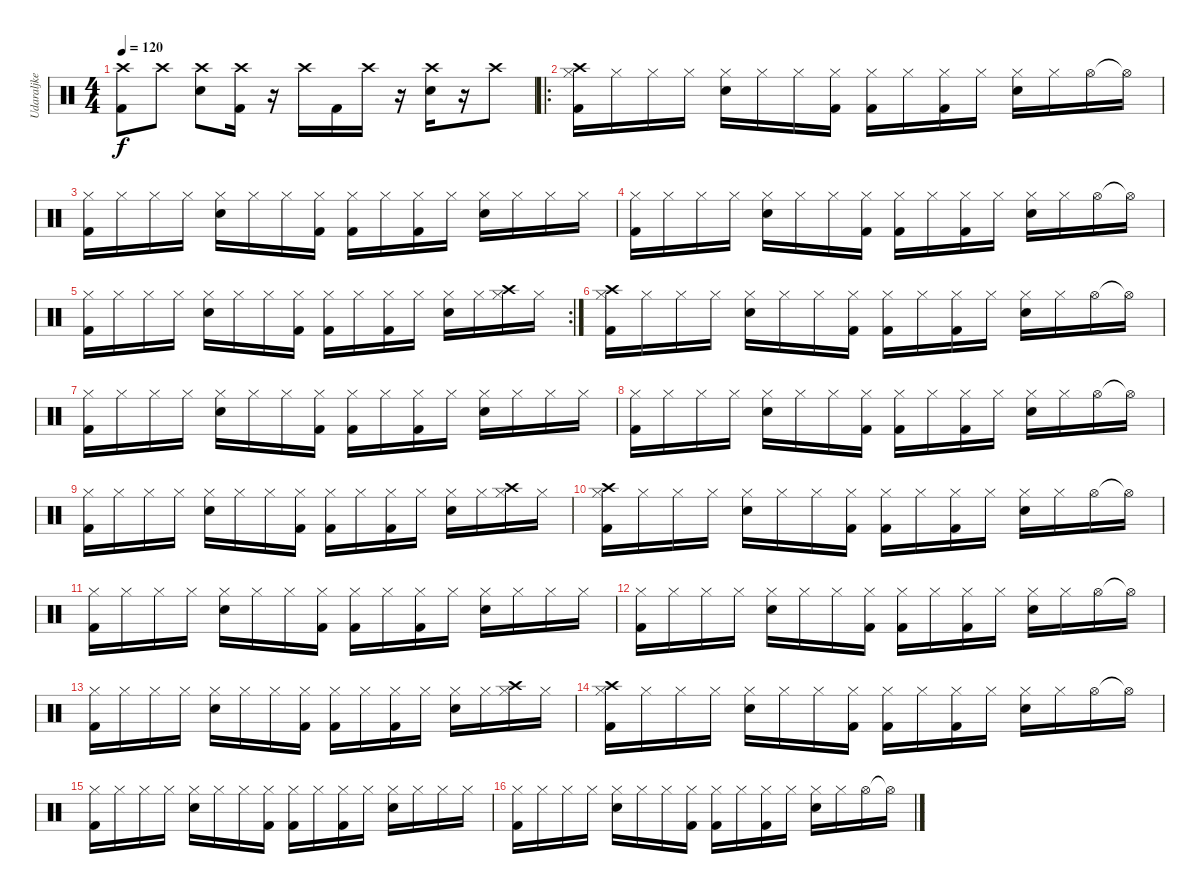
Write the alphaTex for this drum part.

\track ("Udaraljke" "Udaraljke") {instrument percussion}
\staff {score}
\articulation defaults
\ts (4 4)
\tempo 120
\clef neutral
\ks c
("Crash high (hit)" "Kick (hit) 2").8{dy f} "Crash high (hit)".8 ("Crash high (hit)" "Snare (hit) 2").8 ("Crash high (hit)" "Kick (hit) 2").16 r.16 "Crash high (hit)".16 "Kick (hit) 2".16 "Crash high (hit)".16 r.16 ("Crash high (hit)" "Snare (hit) 2").16 r.16 "Crash high (hit)".8 |
\ro
("Crash high (hit)" "Hi-Hat (closed)" "Kick (hit) 2").16 "Hi-Hat (closed)".16 "Hi-Hat (closed)".16 "Hi-Hat (closed)".16 ("Hi-Hat (closed)" "Snare (hit) 2").16 "Hi-Hat (closed)".16 "Hi-Hat (closed)".16 ("Hi-Hat (closed)" "Kick (hit) 2").16 ("Hi-Hat (closed)" "Kick (hit) 2").16 "Hi-Hat (closed)".16 ("Hi-Hat (closed)" "Kick (hit) 2").16 "Hi-Hat (closed)".16 ("Hi-Hat (closed)" "Snare (hit) 2").16 "Hi-Hat (closed)".16 "Hi-Hat (open)".16 "Hi-Hat (open)"{t}.16 |
("Hi-Hat (closed)" "Kick (hit) 2").16 "Hi-Hat (closed)".16 "Hi-Hat (closed)".16 "Hi-Hat (closed)".16 ("Hi-Hat (closed)" "Snare (hit) 2").16 "Hi-Hat (closed)".16 "Hi-Hat (closed)".16 ("Hi-Hat (closed)" "Kick (hit) 2").16 ("Hi-Hat (closed)" "Kick (hit) 2").16 "Hi-Hat (closed)".16 ("Hi-Hat (closed)" "Kick (hit) 2").16 "Hi-Hat (closed)".16 ("Hi-Hat (closed)" "Snare (hit) 2").16 "Hi-Hat (closed)".16 "Hi-Hat (closed)".16 "Hi-Hat (closed)".16 |
("Hi-Hat (closed)" "Kick (hit) 2").16 "Hi-Hat (closed)".16 "Hi-Hat (closed)".16 "Hi-Hat (closed)".16 ("Hi-Hat (closed)" "Snare (hit) 2").16 "Hi-Hat (closed)".16 "Hi-Hat (closed)".16 ("Hi-Hat (closed)" "Kick (hit) 2").16 ("Hi-Hat (closed)" "Kick (hit) 2").16 "Hi-Hat (closed)".16 ("Hi-Hat (closed)" "Kick (hit) 2").16 "Hi-Hat (closed)".16 ("Hi-Hat (closed)" "Snare (hit) 2").16 "Hi-Hat (closed)".16 "Hi-Hat (open)".16 "Hi-Hat (open)"{t}.16 |
\rc 2
("Hi-Hat (closed)" "Kick (hit) 2").16 "Hi-Hat (closed)".16 "Hi-Hat (closed)".16 "Hi-Hat (closed)".16 ("Hi-Hat (closed)" "Snare (hit) 2").16 "Hi-Hat (closed)".16 "Hi-Hat (closed)".16 ("Hi-Hat (closed)" "Kick (hit) 2").16 ("Hi-Hat (closed)" "Kick (hit) 2").16 "Hi-Hat (closed)".16 ("Hi-Hat (closed)" "Kick (hit) 2").16 "Hi-Hat (closed)".16 ("Hi-Hat (closed)" "Snare (hit) 2").16 "Hi-Hat (closed)".16 ("Crash high (hit)" "Hi-Hat (closed)").16 "Hi-Hat (closed)".16 |
("Crash high (hit)" "Hi-Hat (closed)" "Kick (hit) 2").16 "Hi-Hat (closed)".16 "Hi-Hat (closed)".16 "Hi-Hat (closed)".16 ("Hi-Hat (closed)" "Snare (hit) 2").16 "Hi-Hat (closed)".16 "Hi-Hat (closed)".16 ("Hi-Hat (closed)" "Kick (hit) 2").16 ("Hi-Hat (closed)" "Kick (hit) 2").16 "Hi-Hat (closed)".16 ("Hi-Hat (closed)" "Kick (hit) 2").16 "Hi-Hat (closed)".16 ("Hi-Hat (closed)" "Snare (hit) 2").16 "Hi-Hat (closed)".16 "Hi-Hat (open)".16 "Hi-Hat (open)"{t}.16 |
("Hi-Hat (closed)" "Kick (hit) 2").16 "Hi-Hat (closed)".16 "Hi-Hat (closed)".16 "Hi-Hat (closed)".16 ("Hi-Hat (closed)" "Snare (hit) 2").16 "Hi-Hat (closed)".16 "Hi-Hat (closed)".16 ("Hi-Hat (closed)" "Kick (hit) 2").16 ("Hi-Hat (closed)" "Kick (hit) 2").16 "Hi-Hat (closed)".16 ("Hi-Hat (closed)" "Kick (hit) 2").16 "Hi-Hat (closed)".16 ("Hi-Hat (closed)" "Snare (hit) 2").16 "Hi-Hat (closed)".16 "Hi-Hat (closed)".16 "Hi-Hat (closed)".16 |
("Hi-Hat (closed)" "Kick (hit) 2").16 "Hi-Hat (closed)".16 "Hi-Hat (closed)".16 "Hi-Hat (closed)".16 ("Hi-Hat (closed)" "Snare (hit) 2").16 "Hi-Hat (closed)".16 "Hi-Hat (closed)".16 ("Hi-Hat (closed)" "Kick (hit) 2").16 ("Hi-Hat (closed)" "Kick (hit) 2").16 "Hi-Hat (closed)".16 ("Hi-Hat (closed)" "Kick (hit) 2").16 "Hi-Hat (closed)".16 ("Hi-Hat (closed)" "Snare (hit) 2").16 "Hi-Hat (closed)".16 "Hi-Hat (open)".16 "Hi-Hat (open)"{t}.16 |
("Hi-Hat (closed)" "Kick (hit) 2").16 "Hi-Hat (closed)".16 "Hi-Hat (closed)".16 "Hi-Hat (closed)".16 ("Hi-Hat (closed)" "Snare (hit) 2").16 "Hi-Hat (closed)".16 "Hi-Hat (closed)".16 ("Hi-Hat (closed)" "Kick (hit) 2").16 ("Hi-Hat (closed)" "Kick (hit) 2").16 "Hi-Hat (closed)".16 ("Hi-Hat (closed)" "Kick (hit) 2").16 "Hi-Hat (closed)".16 ("Hi-Hat (closed)" "Snare (hit) 2").16 "Hi-Hat (closed)".16 ("Crash high (hit)" "Hi-Hat (closed)").16 "Hi-Hat (closed)".16 |
("Crash high (hit)" "Hi-Hat (closed)" "Kick (hit) 2").16 "Hi-Hat (closed)".16 "Hi-Hat (closed)".16 "Hi-Hat (closed)".16 ("Hi-Hat (closed)" "Snare (hit) 2").16 "Hi-Hat (closed)".16 "Hi-Hat (closed)".16 ("Hi-Hat (closed)" "Kick (hit) 2").16 ("Hi-Hat (closed)" "Kick (hit) 2").16 "Hi-Hat (closed)".16 ("Hi-Hat (closed)" "Kick (hit) 2").16 "Hi-Hat (closed)".16 ("Hi-Hat (closed)" "Snare (hit) 2").16 "Hi-Hat (closed)".16 "Hi-Hat (open)".16 "Hi-Hat (open)"{t}.16 |
("Hi-Hat (closed)" "Kick (hit) 2").16 "Hi-Hat (closed)".16 "Hi-Hat (closed)".16 "Hi-Hat (closed)".16 ("Hi-Hat (closed)" "Snare (hit) 2").16 "Hi-Hat (closed)".16 "Hi-Hat (closed)".16 ("Hi-Hat (closed)" "Kick (hit) 2").16 ("Hi-Hat (closed)" "Kick (hit) 2").16 "Hi-Hat (closed)".16 ("Hi-Hat (closed)" "Kick (hit) 2").16 "Hi-Hat (closed)".16 ("Hi-Hat (closed)" "Snare (hit) 2").16 "Hi-Hat (closed)".16 "Hi-Hat (closed)".16 "Hi-Hat (closed)".16 |
("Hi-Hat (closed)" "Kick (hit) 2").16 "Hi-Hat (closed)".16 "Hi-Hat (closed)".16 "Hi-Hat (closed)".16 ("Hi-Hat (closed)" "Snare (hit) 2").16 "Hi-Hat (closed)".16 "Hi-Hat (closed)".16 ("Hi-Hat (closed)" "Kick (hit) 2").16 ("Hi-Hat (closed)" "Kick (hit) 2").16 "Hi-Hat (closed)".16 ("Hi-Hat (closed)" "Kick (hit) 2").16 "Hi-Hat (closed)".16 ("Hi-Hat (closed)" "Snare (hit) 2").16 "Hi-Hat (closed)".16 "Hi-Hat (open)".16 "Hi-Hat (open)"{t}.16 |
("Hi-Hat (closed)" "Kick (hit) 2").16 "Hi-Hat (closed)".16 "Hi-Hat (closed)".16 "Hi-Hat (closed)".16 ("Hi-Hat (closed)" "Snare (hit) 2").16 "Hi-Hat (closed)".16 "Hi-Hat (closed)".16 ("Hi-Hat (closed)" "Kick (hit) 2").16 ("Hi-Hat (closed)" "Kick (hit) 2").16 "Hi-Hat (closed)".16 ("Hi-Hat (closed)" "Kick (hit) 2").16 "Hi-Hat (closed)".16 ("Hi-Hat (closed)" "Snare (hit) 2").16 "Hi-Hat (closed)".16 ("Crash high (hit)" "Hi-Hat (closed)").16 "Hi-Hat (closed)".16 |
("Crash high (hit)" "Hi-Hat (closed)" "Kick (hit) 2").16 "Hi-Hat (closed)".16 "Hi-Hat (closed)".16 "Hi-Hat (closed)".16 ("Hi-Hat (closed)" "Snare (hit) 2").16 "Hi-Hat (closed)".16 "Hi-Hat (closed)".16 ("Hi-Hat (closed)" "Kick (hit) 2").16 ("Hi-Hat (closed)" "Kick (hit) 2").16 "Hi-Hat (closed)".16 ("Hi-Hat (closed)" "Kick (hit) 2").16 "Hi-Hat (closed)".16 ("Hi-Hat (closed)" "Snare (hit) 2").16 "Hi-Hat (closed)".16 "Hi-Hat (open)".16 "Hi-Hat (open)"{t}.16 |
("Hi-Hat (closed)" "Kick (hit) 2").16 "Hi-Hat (closed)".16 "Hi-Hat (closed)".16 "Hi-Hat (closed)".16 ("Hi-Hat (closed)" "Snare (hit) 2").16 "Hi-Hat (closed)".16 "Hi-Hat (closed)".16 ("Hi-Hat (closed)" "Kick (hit) 2").16 ("Hi-Hat (closed)" "Kick (hit) 2").16 "Hi-Hat (closed)".16 ("Hi-Hat (closed)" "Kick (hit) 2").16 "Hi-Hat (closed)".16 ("Hi-Hat (closed)" "Snare (hit) 2").16 "Hi-Hat (closed)".16 "Hi-Hat (closed)".16 "Hi-Hat (closed)".16 |
("Hi-Hat (closed)" "Kick (hit) 2").16 "Hi-Hat (closed)".16 "Hi-Hat (closed)".16 "Hi-Hat (closed)".16 ("Hi-Hat (closed)" "Snare (hit) 2").16 "Hi-Hat (closed)".16 "Hi-Hat (closed)".16 ("Hi-Hat (closed)" "Kick (hit) 2").16 ("Hi-Hat (closed)" "Kick (hit) 2").16 "Hi-Hat (closed)".16 ("Hi-Hat (closed)" "Kick (hit) 2").16 "Hi-Hat (closed)".16 ("Hi-Hat (closed)" "Snare (hit) 2").16 "Hi-Hat (closed)".16 "Hi-Hat (open)".16 "Hi-Hat (open)"{t}.16
